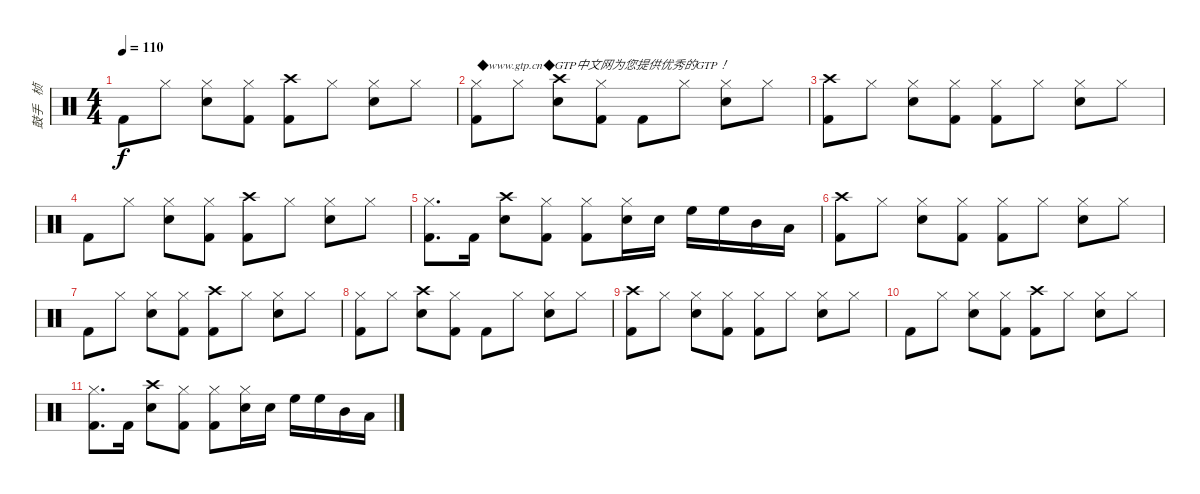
\track ("鼓手   桢" "鼓手   桢") {instrument percussion bank 1}
\staff {score}
\articulation defaults
\ts (4 4)
\tempo 110
\clef neutral
\ks c "Kick (hit) 2".8{dy f} "Hi-Hat (closed)".8
("Hi-Hat (closed)" "Snare (hit) 2").8 ("Hi-Hat (closed)" "Kick (hit) 2").8 ("Crash high (hit)" "Kick (hit) 2").8 "Hi-Hat (closed)".8 ("Hi-Hat (closed)" "Snare (hit) 2").8 "Hi-Hat (closed)".8 |
("Hi-Hat (closed)" "Kick (hit) 2").8{txt "◆www.gtp.cn◆GTP中文网为您提供优秀的GTP！"} "Hi-Hat (closed)".8 ("Crash high (hit)" "Snare (hit) 2").8 ("Hi-Hat (closed)" "Kick (hit) 2").8 "Kick (hit) 2".8 "Hi-Hat (closed)".8 ("Hi-Hat (closed)" "Snare (hit) 2").8 "Hi-Hat (closed)".8 |
("Crash high (hit)" "Kick (hit) 2").8 "Hi-Hat (closed)".8 ("Hi-Hat (closed)" "Snare (hit) 2").8 ("Hi-Hat (closed)" "Kick (hit) 2").8 ("Hi-Hat (closed)" "Kick (hit) 2").8 "Hi-Hat (closed)".8 ("Hi-Hat (closed)" "Snare (hit) 2").8 "Hi-Hat (closed)".8 |
"Kick (hit) 2".8 "Hi-Hat (closed)".8 ("Hi-Hat (closed)" "Snare (hit) 2").8 ("Hi-Hat (closed)" "Kick (hit) 2").8 ("Crash high (hit)" "Kick (hit) 2").8 "Hi-Hat (closed)".8 ("Hi-Hat (closed)" "Snare (hit) 2").8 "Hi-Hat (closed)".8 |
("Hi-Hat (closed)" "Kick (hit) 2").8{d} "Kick (hit) 2".16 ("Crash high (hit)" "Snare (hit) 2").8 ("Hi-Hat (closed)" "Kick (hit) 2").8 ("Hi-Hat (closed)" "Kick (hit) 2").8 ("Hi-Hat (closed)" "Snare (hit) 2").16 "Snare (hit) 2".16 "High Floor Tom (hit)".16 "High Floor Tom (hit)".16 "Mid Tom (hit)".16 "Low Tom (hit)".16 |
("Crash high (hit)" "Kick (hit) 2").8 "Hi-Hat (closed)".8 ("Hi-Hat (closed)" "Snare (hit) 2").8 ("Hi-Hat (closed)" "Kick (hit) 2").8 ("Hi-Hat (closed)" "Kick (hit) 2").8 "Hi-Hat (closed)".8 ("Hi-Hat (closed)" "Snare (hit) 2").8 "Hi-Hat (closed)".8 |
"Kick (hit) 2".8 "Hi-Hat (closed)".8 ("Hi-Hat (closed)" "Snare (hit) 2").8 ("Hi-Hat (closed)" "Kick (hit) 2").8 ("Crash high (hit)" "Kick (hit) 2").8 "Hi-Hat (closed)".8 ("Hi-Hat (closed)" "Snare (hit) 2").8 "Hi-Hat (closed)".8 |
("Hi-Hat (closed)" "Kick (hit) 2").8 "Hi-Hat (closed)".8 ("Crash high (hit)" "Snare (hit) 2").8 ("Hi-Hat (closed)" "Kick (hit) 2").8 "Kick (hit) 2".8 "Hi-Hat (closed)".8 ("Hi-Hat (closed)" "Snare (hit) 2").8 "Hi-Hat (closed)".8 |
("Crash high (hit)" "Kick (hit) 2").8 "Hi-Hat (closed)".8 ("Hi-Hat (closed)" "Snare (hit) 2").8 ("Hi-Hat (closed)" "Kick (hit) 2").8 ("Hi-Hat (closed)" "Kick (hit) 2").8 "Hi-Hat (closed)".8 ("Hi-Hat (closed)" "Snare (hit) 2").8 "Hi-Hat (closed)".8 |
"Kick (hit) 2".8 "Hi-Hat (closed)".8 ("Hi-Hat (closed)" "Snare (hit) 2").8 ("Hi-Hat (closed)" "Kick (hit) 2").8 ("Crash high (hit)" "Kick (hit) 2").8 "Hi-Hat (closed)".8 ("Hi-Hat (closed)" "Snare (hit) 2").8 "Hi-Hat (closed)".8 |
("Hi-Hat (closed)" "Kick (hit) 2").8{d} "Kick (hit) 2".16 ("Crash high (hit)" "Snare (hit) 2").8 ("Hi-Hat (closed)" "Kick (hit) 2").8 ("Hi-Hat (closed)" "Kick (hit) 2").8 ("Hi-Hat (closed)" "Snare (hit) 2").16 "Snare (hit) 2".16 "High Floor Tom (hit)".16 "High Floor Tom (hit)".16 "Mid Tom (hit)".16 "Low Tom (hit)".16
